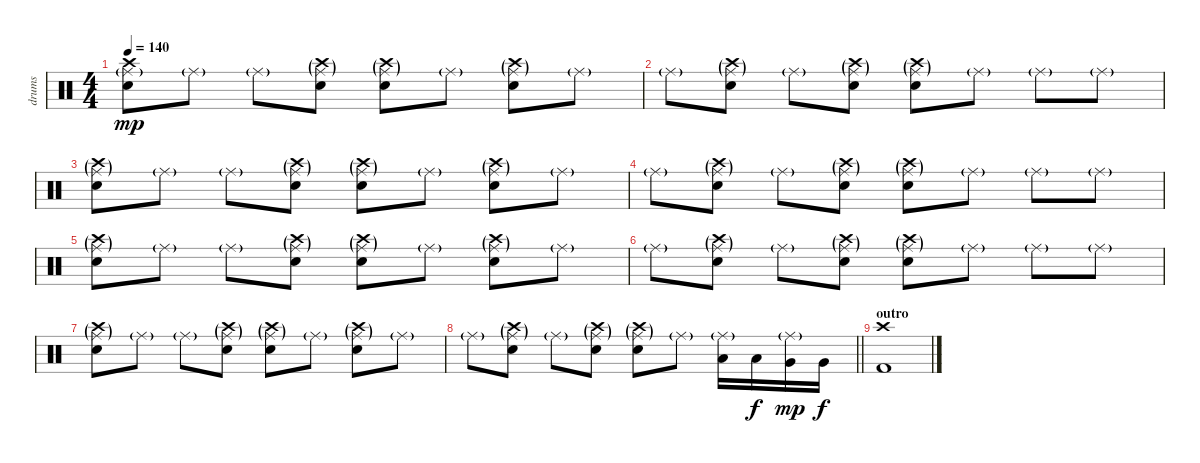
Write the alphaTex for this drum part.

\track ("drums" "drums") {instrument percussion}
\staff {score}
\articulation defaults
\ts (4 4)
\tempo 140
\clef neutral
\ks c
("Electric Snare (hit)" "Ride (middle)"{g} "Crash high (hit)").8{dy mp} "Ride (middle)"{g}.8 "Ride (middle)"{g}.8 ("Electric Snare (hit)" "Ride (middle)"{g} "Crash high (hit)"{g}).8 ("Electric Snare (hit)" "Ride (middle)"{g} "Crash high (hit)"{g}).8 "Ride (middle)"{g}.8 ("Electric Snare (hit)" "Ride (middle)"{g} "Crash high (hit)"{g}).8 "Ride (middle)"{g}.8 |
"Ride (middle)"{g}.8 ("Electric Snare (hit)" "Ride (middle)"{g} "Crash high (hit)"{g}).8 "Ride (middle)"{g}.8 ("Electric Snare (hit)" "Ride (middle)"{g} "Crash high (hit)"{g}).8 ("Electric Snare (hit)" "Ride (middle)"{g} "Crash high (hit)"{g}).8 "Ride (middle)"{g}.8 "Ride (middle)"{g}.8 "Ride (middle)"{g}.8 |
("Electric Snare (hit)" "Ride (middle)"{g} "Crash high (hit)"{g}).8 "Ride (middle)"{g}.8 "Ride (middle)"{g}.8 ("Electric Snare (hit)" "Ride (middle)"{g} "Crash high (hit)"{g}).8 ("Electric Snare (hit)" "Ride (middle)"{g} "Crash high (hit)"{g}).8 "Ride (middle)"{g}.8 ("Electric Snare (hit)" "Ride (middle)"{g} "Crash high (hit)"{g}).8 "Ride (middle)"{g}.8 |
"Ride (middle)"{g}.8 ("Electric Snare (hit)" "Ride (middle)"{g} "Crash high (hit)"{g}).8 "Ride (middle)"{g}.8 ("Electric Snare (hit)" "Ride (middle)"{g} "Crash high (hit)"{g}).8 ("Electric Snare (hit)" "Ride (middle)"{g} "Crash high (hit)"{g}).8 "Ride (middle)"{g}.8 "Ride (middle)"{g}.8 "Ride (middle)"{g}.8 |
("Electric Snare (hit)" "Ride (middle)"{g} "Crash high (hit)"{g}).8 "Ride (middle)"{g}.8 "Ride (middle)"{g}.8 ("Electric Snare (hit)" "Ride (middle)"{g} "Crash high (hit)"{g}).8 ("Electric Snare (hit)" "Ride (middle)"{g} "Crash high (hit)"{g}).8 "Ride (middle)"{g}.8 ("Electric Snare (hit)" "Ride (middle)"{g} "Crash high (hit)"{g}).8 "Ride (middle)"{g}.8 |
"Ride (middle)"{g}.8 ("Electric Snare (hit)" "Ride (middle)"{g} "Crash high (hit)"{g}).8 "Ride (middle)"{g}.8 ("Electric Snare (hit)" "Ride (middle)"{g} "Crash high (hit)"{g}).8 ("Electric Snare (hit)" "Ride (middle)"{g} "Crash high (hit)"{g}).8 "Ride (middle)"{g}.8 "Ride (middle)"{g}.8 "Ride (middle)"{g}.8 |
("Electric Snare (hit)" "Ride (middle)"{g} "Crash high (hit)"{g}).8 "Ride (middle)"{g}.8 "Ride (middle)"{g}.8 ("Electric Snare (hit)" "Ride (middle)"{g} "Crash high (hit)"{g}).8 ("Electric Snare (hit)" "Ride (middle)"{g} "Crash high (hit)"{g}).8 "Ride (middle)"{g}.8 ("Electric Snare (hit)" "Ride (middle)"{g} "Crash high (hit)"{g}).8 "Ride (middle)"{g}.8 |
\barLineRight lightlight "Ride (middle)"{g}.8
("Electric Snare (hit)" "Ride (middle)"{g} "Crash high (hit)"{g}).8 "Ride (middle)"{g}.8 ("Electric Snare (hit)" "Ride (middle)"{g} "Crash high (hit)"{g}).8 ("Electric Snare (hit)" "Ride (middle)"{g} "Crash high (hit)"{g}).8 "Ride (middle)"{g}.8 ("Low Tom (hit)" "Ride (middle)"{g}).16 "Low Tom (hit)".16{dy f} ("Very Low Tom (hit)" "Ride (middle)"{g}).16{dy mp} "Very Low Tom (hit)".16{dy f} |
\section ("" "outro")
("Kick (hit) 2" "Crash high (hit)").1
